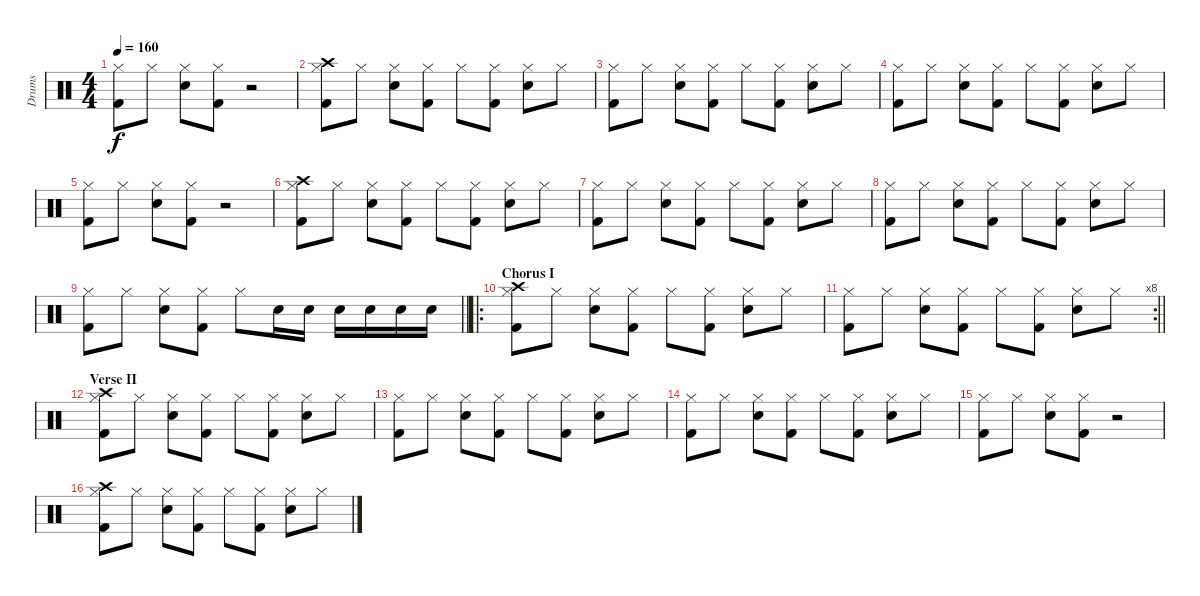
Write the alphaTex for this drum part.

\track ("Drums" "Drums") {instrument percussion}
\staff {score}
\articulation defaults
\ts (4 4)
\tempo 160
\clef neutral
\ks c
("Hi-Hat (closed)" "Kick (hit) 2").8{dy f} "Hi-Hat (closed)".8 ("Hi-Hat (closed)" "Snare (hit) 2").8 ("Hi-Hat (closed)" "Kick (hit) 2").8 r.2 |
("Crash high (hit)" "Hi-Hat (closed)" "Kick (hit) 2").8 "Hi-Hat (closed)".8 ("Hi-Hat (closed)" "Snare (hit) 2").8 ("Hi-Hat (closed)" "Kick (hit) 2").8 "Hi-Hat (closed)".8 ("Hi-Hat (closed)" "Kick (hit) 2").8 ("Hi-Hat (closed)" "Snare (hit) 2").8 "Hi-Hat (closed)".8 |
("Hi-Hat (closed)" "Kick (hit) 2").8 "Hi-Hat (closed)".8 ("Hi-Hat (closed)" "Snare (hit) 2").8 ("Hi-Hat (closed)" "Kick (hit) 2").8 "Hi-Hat (closed)".8 ("Hi-Hat (closed)" "Kick (hit) 2").8 ("Hi-Hat (closed)" "Snare (hit) 2").8 "Hi-Hat (closed)".8 |
("Hi-Hat (closed)" "Kick (hit) 2").8 "Hi-Hat (closed)".8 ("Hi-Hat (closed)" "Snare (hit) 2").8 ("Hi-Hat (closed)" "Kick (hit) 2").8 "Hi-Hat (closed)".8 ("Hi-Hat (closed)" "Kick (hit) 2").8 ("Hi-Hat (closed)" "Snare (hit) 2").8 "Hi-Hat (closed)".8 |
("Hi-Hat (closed)" "Kick (hit) 2").8 "Hi-Hat (closed)".8 ("Hi-Hat (closed)" "Snare (hit) 2").8 ("Hi-Hat (closed)" "Kick (hit) 2").8 r.2 |
("Crash high (hit)" "Hi-Hat (closed)" "Kick (hit) 2").8 "Hi-Hat (closed)".8 ("Hi-Hat (closed)" "Snare (hit) 2").8 ("Hi-Hat (closed)" "Kick (hit) 2").8 "Hi-Hat (closed)".8 ("Hi-Hat (closed)" "Kick (hit) 2").8 ("Hi-Hat (closed)" "Snare (hit) 2").8 "Hi-Hat (closed)".8 |
("Hi-Hat (closed)" "Kick (hit) 2").8 "Hi-Hat (closed)".8 ("Hi-Hat (closed)" "Snare (hit) 2").8 ("Hi-Hat (closed)" "Kick (hit) 2").8 "Hi-Hat (closed)".8 ("Hi-Hat (closed)" "Kick (hit) 2").8 ("Hi-Hat (closed)" "Snare (hit) 2").8 "Hi-Hat (closed)".8 |
("Hi-Hat (closed)" "Kick (hit) 2").8 "Hi-Hat (closed)".8 ("Hi-Hat (closed)" "Snare (hit) 2").8 ("Hi-Hat (closed)" "Kick (hit) 2").8 "Hi-Hat (closed)".8 ("Hi-Hat (closed)" "Kick (hit) 2").8 ("Hi-Hat (closed)" "Snare (hit) 2").8 "Hi-Hat (closed)".8 |
\barLineRight lightlight
("Hi-Hat (closed)" "Kick (hit) 2").8 "Hi-Hat (closed)".8 ("Hi-Hat (closed)" "Snare (hit) 2").8 ("Hi-Hat (closed)" "Kick (hit) 2").8 "Hi-Hat (closed)".8 "Snare (hit) 2".16 "Snare (hit) 2".16 "Snare (hit) 2".16 "Snare (hit) 2".16 "Snare (hit) 2".16 "Snare (hit) 2".16 |
\ro
\section ("" "Chorus I")
("Crash high (hit)" "Hi-Hat (closed)" "Kick (hit) 2").8 "Hi-Hat (closed)".8 ("Hi-Hat (closed)" "Snare (hit) 2").8 ("Hi-Hat (closed)" "Kick (hit) 2").8 "Hi-Hat (closed)".8 ("Hi-Hat (closed)" "Kick (hit) 2").8 ("Hi-Hat (closed)" "Snare (hit) 2").8 "Hi-Hat (closed)".8 |
\rc 8
\barLineRight lightlight
("Hi-Hat (closed)" "Kick (hit) 2").8 "Hi-Hat (closed)".8 ("Hi-Hat (closed)" "Snare (hit) 2").8 ("Hi-Hat (closed)" "Kick (hit) 2").8 "Hi-Hat (closed)".8 ("Hi-Hat (closed)" "Kick (hit) 2").8 ("Hi-Hat (closed)" "Snare (hit) 2").8 "Hi-Hat (closed)".8 |
\section ("" "Verse II")
("Crash high (hit)" "Hi-Hat (closed)" "Kick (hit) 2").8 "Hi-Hat (closed)".8 ("Hi-Hat (closed)" "Snare (hit) 2").8 ("Hi-Hat (closed)" "Kick (hit) 2").8 "Hi-Hat (closed)".8 ("Hi-Hat (closed)" "Kick (hit) 2").8 ("Hi-Hat (closed)" "Snare (hit) 2").8 "Hi-Hat (closed)".8 |
("Hi-Hat (closed)" "Kick (hit) 2").8 "Hi-Hat (closed)".8 ("Hi-Hat (closed)" "Snare (hit) 2").8 ("Hi-Hat (closed)" "Kick (hit) 2").8 "Hi-Hat (closed)".8 ("Hi-Hat (closed)" "Kick (hit) 2").8 ("Hi-Hat (closed)" "Snare (hit) 2").8 "Hi-Hat (closed)".8 |
("Hi-Hat (closed)" "Kick (hit) 2").8 "Hi-Hat (closed)".8 ("Hi-Hat (closed)" "Snare (hit) 2").8 ("Hi-Hat (closed)" "Kick (hit) 2").8 "Hi-Hat (closed)".8 ("Hi-Hat (closed)" "Kick (hit) 2").8 ("Hi-Hat (closed)" "Snare (hit) 2").8 "Hi-Hat (closed)".8 |
("Hi-Hat (closed)" "Kick (hit) 2").8 "Hi-Hat (closed)".8 ("Hi-Hat (closed)" "Snare (hit) 2").8 ("Hi-Hat (closed)" "Kick (hit) 2").8 r.2 |
("Crash high (hit)" "Hi-Hat (closed)" "Kick (hit) 2").8 "Hi-Hat (closed)".8 ("Hi-Hat (closed)" "Snare (hit) 2").8 ("Hi-Hat (closed)" "Kick (hit) 2").8 "Hi-Hat (closed)".8 ("Hi-Hat (closed)" "Kick (hit) 2").8 ("Hi-Hat (closed)" "Snare (hit) 2").8 "Hi-Hat (closed)".8
